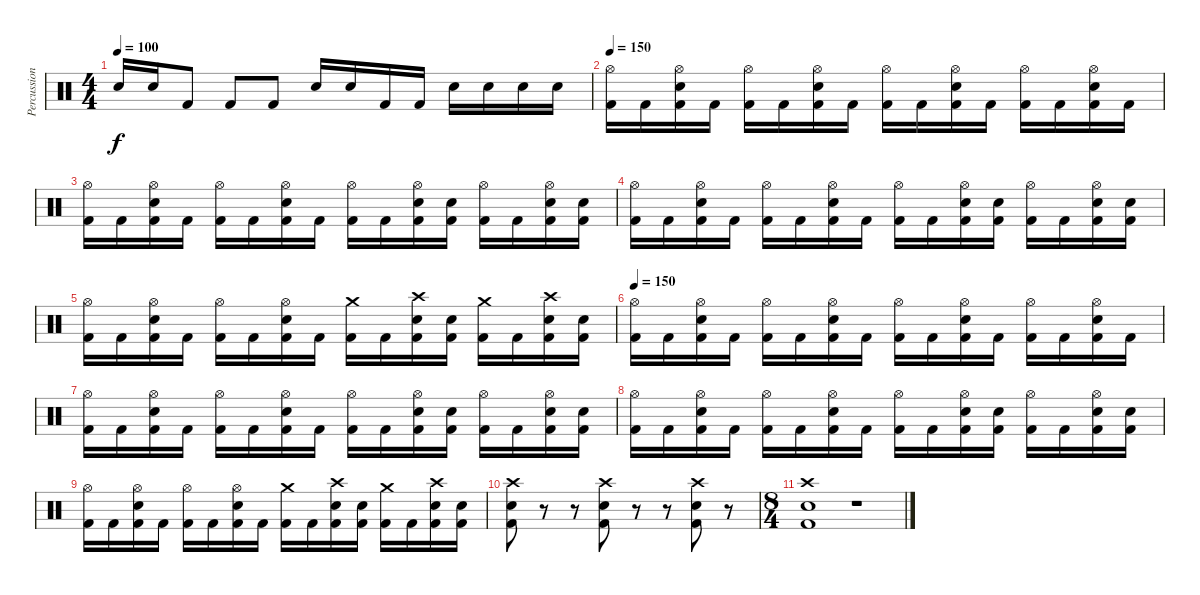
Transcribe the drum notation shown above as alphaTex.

\track ("Percussion" "Percussion") {instrument percussion}
\staff {score}
\articulation defaults
\ts (4 4)
\tempo 100
\clef neutral
\ks c "Snare (hit) 2".16{dy f} "Snare (hit) 2".16 "Kick (hit) 2".8 "Kick (hit) 2".8 "Kick (hit) 2".8 "Snare (hit) 2".16 "Snare (hit) 2".16 "Kick (hit) 2".16 "Kick (hit) 2".16 "Snare (hit) 2".16 "Snare (hit) 2".16 "Snare (hit) 2".16 "Snare (hit) 2".16
|
\tempo 150
("Hi-Hat (open)" "Kick (hit) 2").16 "Kick (hit) 2".16 ("Hi-Hat (open)" "Snare (hit) 2" "Kick (hit) 2").16 "Kick (hit) 2".16 ("Hi-Hat (open)" "Kick (hit) 2").16 "Kick (hit) 2".16 ("Hi-Hat (open)" "Snare (hit) 2" "Kick (hit) 2").16 "Kick (hit) 2".16 ("Hi-Hat (open)" "Kick (hit) 2").16 "Kick (hit) 2".16 ("Hi-Hat (open)" "Snare (hit) 2" "Kick (hit) 2").16 "Kick (hit) 2".16 ("Hi-Hat (open)" "Kick (hit) 2").16 "Kick (hit) 2".16 ("Hi-Hat (open)" "Snare (hit) 2" "Kick (hit) 2").16 "Kick (hit) 2".16 |
("Hi-Hat (open)" "Kick (hit) 2").16 "Kick (hit) 2".16 ("Hi-Hat (open)" "Snare (hit) 2" "Kick (hit) 2").16 "Kick (hit) 2".16 ("Hi-Hat (open)" "Kick (hit) 2").16 "Kick (hit) 2".16 ("Hi-Hat (open)" "Snare (hit) 2" "Kick (hit) 2").16 "Kick (hit) 2".16 ("Hi-Hat (open)" "Kick (hit) 2").16 "Kick (hit) 2".16 ("Hi-Hat (open)" "Snare (hit) 2" "Kick (hit) 2").16 ("Snare (hit) 2" "Kick (hit) 2").16 ("Hi-Hat (open)" "Kick (hit) 2").16 "Kick (hit) 2".16 ("Hi-Hat (open)" "Snare (hit) 2" "Kick (hit) 2").16 ("Snare (hit) 2" "Kick (hit) 2").16 |
("Hi-Hat (open)" "Kick (hit) 2").16 "Kick (hit) 2".16 ("Hi-Hat (open)" "Snare (hit) 2" "Kick (hit) 2").16 "Kick (hit) 2".16 ("Hi-Hat (open)" "Kick (hit) 2").16 "Kick (hit) 2".16 ("Hi-Hat (open)" "Snare (hit) 2" "Kick (hit) 2").16 "Kick (hit) 2".16 ("Hi-Hat (open)" "Kick (hit) 2").16 "Kick (hit) 2".16 ("Hi-Hat (open)" "Snare (hit) 2" "Kick (hit) 2").16 ("Snare (hit) 2" "Kick (hit) 2").16 ("Hi-Hat (open)" "Kick (hit) 2").16 "Kick (hit) 2".16 ("Hi-Hat (open)" "Snare (hit) 2" "Kick (hit) 2").16 ("Snare (hit) 2" "Kick (hit) 2").16 |
("Hi-Hat (open)" "Kick (hit) 2").16 "Kick (hit) 2".16 ("Hi-Hat (open)" "Snare (hit) 2" "Kick (hit) 2").16 "Kick (hit) 2".16 ("Hi-Hat (open)" "Kick (hit) 2").16 "Kick (hit) 2".16 ("Hi-Hat (open)" "Snare (hit) 2" "Kick (hit) 2").16 "Kick (hit) 2".16 ("Crash medium (hit)" "Kick (hit) 2").16 "Kick (hit) 2".16 ("Crash high (hit)" "Snare (hit) 2" "Kick (hit) 2").16 ("Snare (hit) 2" "Kick (hit) 2").16 ("Crash medium (hit)" "Kick (hit) 2").16 "Kick (hit) 2".16 ("Crash high (hit)" "Snare (hit) 2" "Kick (hit) 2").16 ("Snare (hit) 2" "Kick (hit) 2").16 |
\tempo 150
("Hi-Hat (open)" "Kick (hit) 2").16 "Kick (hit) 2".16 ("Hi-Hat (open)" "Snare (hit) 2" "Kick (hit) 2").16 "Kick (hit) 2".16 ("Hi-Hat (open)" "Kick (hit) 2").16 "Kick (hit) 2".16 ("Hi-Hat (open)" "Snare (hit) 2" "Kick (hit) 2").16 "Kick (hit) 2".16 ("Hi-Hat (open)" "Kick (hit) 2").16 "Kick (hit) 2".16 ("Hi-Hat (open)" "Snare (hit) 2" "Kick (hit) 2").16 "Kick (hit) 2".16 ("Hi-Hat (open)" "Kick (hit) 2").16 "Kick (hit) 2".16 ("Hi-Hat (open)" "Snare (hit) 2" "Kick (hit) 2").16 "Kick (hit) 2".16 |
("Hi-Hat (open)" "Kick (hit) 2").16 "Kick (hit) 2".16 ("Hi-Hat (open)" "Snare (hit) 2" "Kick (hit) 2").16 "Kick (hit) 2".16 ("Hi-Hat (open)" "Kick (hit) 2").16 "Kick (hit) 2".16 ("Hi-Hat (open)" "Snare (hit) 2" "Kick (hit) 2").16 "Kick (hit) 2".16 ("Hi-Hat (open)" "Kick (hit) 2").16 "Kick (hit) 2".16 ("Hi-Hat (open)" "Snare (hit) 2" "Kick (hit) 2").16 ("Snare (hit) 2" "Kick (hit) 2").16 ("Hi-Hat (open)" "Kick (hit) 2").16 "Kick (hit) 2".16 ("Hi-Hat (open)" "Snare (hit) 2" "Kick (hit) 2").16 ("Snare (hit) 2" "Kick (hit) 2").16 |
("Hi-Hat (open)" "Kick (hit) 2").16 "Kick (hit) 2".16 ("Hi-Hat (open)" "Snare (hit) 2" "Kick (hit) 2").16 "Kick (hit) 2".16 ("Hi-Hat (open)" "Kick (hit) 2").16 "Kick (hit) 2".16 ("Hi-Hat (open)" "Snare (hit) 2" "Kick (hit) 2").16 "Kick (hit) 2".16 ("Hi-Hat (open)" "Kick (hit) 2").16 "Kick (hit) 2".16 ("Hi-Hat (open)" "Snare (hit) 2" "Kick (hit) 2").16 ("Snare (hit) 2" "Kick (hit) 2").16 ("Hi-Hat (open)" "Kick (hit) 2").16 "Kick (hit) 2".16 ("Hi-Hat (open)" "Snare (hit) 2" "Kick (hit) 2").16 ("Snare (hit) 2" "Kick (hit) 2").16 |
("Hi-Hat (open)" "Kick (hit) 2").16 "Kick (hit) 2".16 ("Hi-Hat (open)" "Snare (hit) 2" "Kick (hit) 2").16 "Kick (hit) 2".16 ("Hi-Hat (open)" "Kick (hit) 2").16 "Kick (hit) 2".16 ("Hi-Hat (open)" "Snare (hit) 2" "Kick (hit) 2").16 "Kick (hit) 2".16 ("Crash medium (hit)" "Kick (hit) 2").16 "Kick (hit) 2".16 ("Crash high (hit)" "Snare (hit) 2" "Kick (hit) 2").16 ("Snare (hit) 2" "Kick (hit) 2").16 ("Crash medium (hit)" "Kick (hit) 2").16 "Kick (hit) 2".16 ("Crash high (hit)" "Snare (hit) 2" "Kick (hit) 2").16 ("Snare (hit) 2" "Kick (hit) 2").16 |
("Crash high (hit)" "Snare (hit) 2" "Kick (hit) 2").8 r.8 r.8 ("Crash high (hit)" "Snare (hit) 2" "Kick (hit) 2").8 r.8 r.8 ("Crash high (hit)" "Snare (hit) 2" "Kick (hit) 2").8 r.8 |
\ts (8 4)
("Crash high (hit)" "Snare (hit) 2" "Kick (hit) 2").1 r.1
